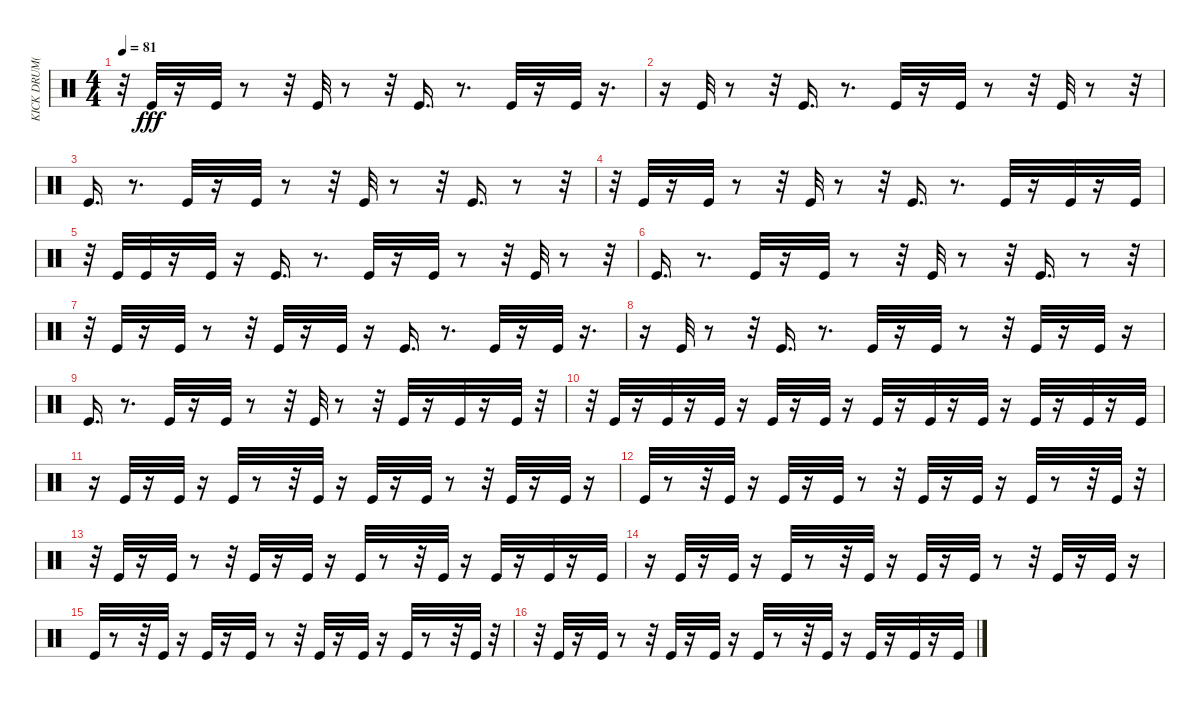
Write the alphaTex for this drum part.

\track ("KICK DRUM(ACOU)" "KICK DRUM(") {instrument percussion}
\staff {score}
\articulation defaults
\ts (4 4)
\tempo 81
\clef neutral
\ks c
r.32{dy fff} "Kick (hit)".32 r.16 "Kick (hit)".32 r.8 r.32 "Kick (hit)".32 r.8 r.32 "Kick (hit)".16{d} r.8{d} "Kick (hit)".32 r.16 "Kick (hit)".32 r.16{d} |
r.16 "Kick (hit)".32 r.8 r.32 "Kick (hit)".16{d} r.8{d} "Kick (hit)".32 r.16 "Kick (hit)".32 r.8 r.32 "Kick (hit)".32 r.8 r.32 |
"Kick (hit)".16{d} r.8{d} "Kick (hit)".32 r.16 "Kick (hit)".32 r.8 r.32 "Kick (hit)".32 r.8 r.32 "Kick (hit)".16{d} r.8 r.32 |
r.32 "Kick (hit)".32 r.16 "Kick (hit)".32 r.8 r.32 "Kick (hit)".32 r.8 r.32 "Kick (hit)".16{d} r.8{d} "Kick (hit)".32 r.16 "Kick (hit)".32 r.16 "Kick (hit)".32 |
r.32 "Kick (hit)".32 "Kick (hit)".32 r.16 "Kick (hit)".32 r.16 "Kick (hit)".16{d} r.8{d} "Kick (hit)".32 r.16 "Kick (hit)".32 r.8 r.32 "Kick (hit)".32 r.8 r.32 |
"Kick (hit)".16{d} r.8{d} "Kick (hit)".32 r.16 "Kick (hit)".32 r.8 r.32 "Kick (hit)".32 r.8 r.32 "Kick (hit)".16{d} r.8 r.32 |
r.32 "Kick (hit)".32 r.16 "Kick (hit)".32 r.8 r.32 "Kick (hit)".32 r.16 "Kick (hit)".32 r.16 "Kick (hit)".16{d} r.8{d} "Kick (hit)".32 r.16 "Kick (hit)".32 r.16{d} |
r.16 "Kick (hit)".32 r.8 r.32 "Kick (hit)".16{d} r.8{d} "Kick (hit)".32 r.16 "Kick (hit)".32 r.8 r.32 "Kick (hit)".32 r.16 "Kick (hit)".32 r.16 |
"Kick (hit)".16{d} r.8{d} "Kick (hit)".32 r.16 "Kick (hit)".32 r.8 r.32 "Kick (hit)".32 r.8 r.32 "Kick (hit)".32 r.16 "Kick (hit)".32 r.16 "Kick (hit)".32 r.32 |
r.32 "Kick (hit)".32 r.16 "Kick (hit)".32 r.16 "Kick (hit)".32 r.16 "Kick (hit)".32 r.16 "Kick (hit)".32 r.16 "Kick (hit)".32 r.16 "Kick (hit)".32 r.16 "Kick (hit)".32 r.16 "Kick (hit)".32 r.16 "Kick (hit)".32 r.16 "Kick (hit)".32 |
r.16 "Kick (hit)".32 r.16 "Kick (hit)".32 r.16 "Kick (hit)".32 r.8 r.32 "Kick (hit)".32 r.16 "Kick (hit)".32 r.16 "Kick (hit)".32 r.8 r.32 "Kick (hit)".32 r.16 "Kick (hit)".32 r.16 |
"Kick (hit)".32 r.8 r.32 "Kick (hit)".32 r.16 "Kick (hit)".32 r.16 "Kick (hit)".32 r.8 r.32 "Kick (hit)".32 r.16 "Kick (hit)".32 r.16 "Kick (hit)".32 r.8 r.32 "Kick (hit)".32 r.32 |
r.32 "Kick (hit)".32 r.16 "Kick (hit)".32 r.8 r.32 "Kick (hit)".32 r.16 "Kick (hit)".32 r.16 "Kick (hit)".32 r.8 r.32 "Kick (hit)".32 r.16 "Kick (hit)".32 r.16 "Kick (hit)".32 r.16 "Kick (hit)".32 |
r.16 "Kick (hit)".32 r.16 "Kick (hit)".32 r.16 "Kick (hit)".32 r.8 r.32 "Kick (hit)".32 r.16 "Kick (hit)".32 r.16 "Kick (hit)".32 r.8 r.32 "Kick (hit)".32 r.16 "Kick (hit)".32 r.16 |
"Kick (hit)".32 r.8 r.32 "Kick (hit)".32 r.16 "Kick (hit)".32 r.16 "Kick (hit)".32 r.8 r.32 "Kick (hit)".32 r.16 "Kick (hit)".32 r.16 "Kick (hit)".32 r.8 r.32 "Kick (hit)".32 r.32 |
r.32 "Kick (hit)".32 r.16 "Kick (hit)".32 r.8 r.32 "Kick (hit)".32 r.16 "Kick (hit)".32 r.16 "Kick (hit)".32 r.8 r.32 "Kick (hit)".32 r.16 "Kick (hit)".32 r.16 "Kick (hit)".32 r.16 "Kick (hit)".32
